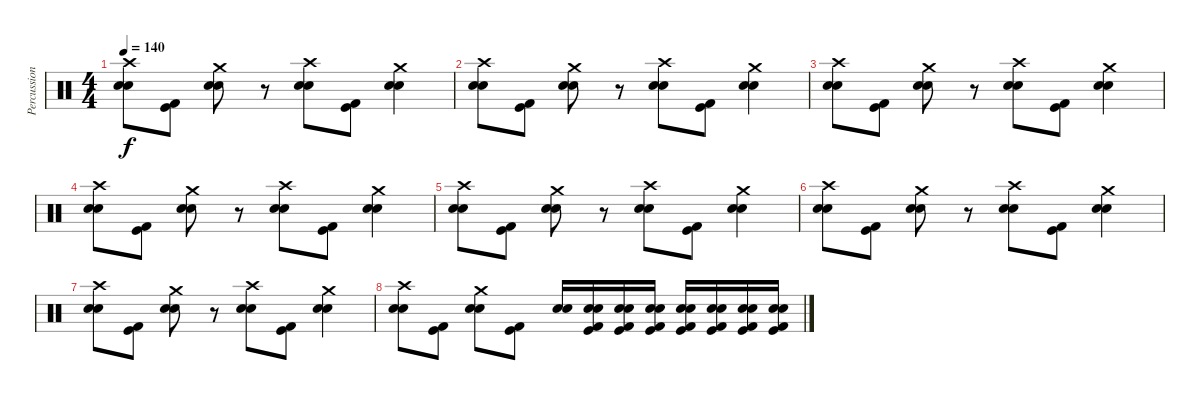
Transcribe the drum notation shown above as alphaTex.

\track ("Percussions" "Percussion") {instrument percussion}
\staff {score}
\articulation defaults
\ts (4 4)
\tempo 140
\clef neutral
\ks c
("Crash high (hit)" "Snare (hit) 2" "Electric Snare (hit)").8{dy f} ("Kick (hit)" "Kick (hit) 2").8 ("Crash medium (hit)" "Snare (hit) 2" "Electric Snare (hit)").8 r.8 ("Crash high (hit)" "Snare (hit) 2" "Electric Snare (hit)").8 ("Kick (hit)" "Kick (hit) 2").8 ("Crash medium (hit)" "Snare (hit) 2" "Electric Snare (hit)").4 |
("Crash high (hit)" "Snare (hit) 2" "Electric Snare (hit)").8 ("Kick (hit)" "Kick (hit) 2").8 ("Crash medium (hit)" "Snare (hit) 2" "Electric Snare (hit)").8 r.8 ("Crash high (hit)" "Snare (hit) 2" "Electric Snare (hit)").8 ("Kick (hit)" "Kick (hit) 2").8 ("Crash medium (hit)" "Snare (hit) 2" "Electric Snare (hit)").4 |
("Crash high (hit)" "Snare (hit) 2" "Electric Snare (hit)").8 ("Kick (hit)" "Kick (hit) 2").8 ("Crash medium (hit)" "Snare (hit) 2" "Electric Snare (hit)").8 r.8 ("Crash high (hit)" "Snare (hit) 2" "Electric Snare (hit)").8 ("Kick (hit)" "Kick (hit) 2").8 ("Crash medium (hit)" "Snare (hit) 2" "Electric Snare (hit)").4 |
("Crash high (hit)" "Snare (hit) 2" "Electric Snare (hit)").8 ("Kick (hit)" "Kick (hit) 2").8 ("Crash medium (hit)" "Snare (hit) 2" "Electric Snare (hit)").8 r.8 ("Crash high (hit)" "Snare (hit) 2" "Electric Snare (hit)").8 ("Kick (hit)" "Kick (hit) 2").8 ("Crash medium (hit)" "Snare (hit) 2" "Electric Snare (hit)").4 |
("Crash high (hit)" "Snare (hit) 2" "Electric Snare (hit)").8 ("Kick (hit)" "Kick (hit) 2").8 ("Crash medium (hit)" "Snare (hit) 2" "Electric Snare (hit)").8 r.8 ("Crash high (hit)" "Snare (hit) 2" "Electric Snare (hit)").8 ("Kick (hit)" "Kick (hit) 2").8 ("Crash medium (hit)" "Snare (hit) 2" "Electric Snare (hit)").4 |
("Crash high (hit)" "Snare (hit) 2" "Electric Snare (hit)").8 ("Kick (hit)" "Kick (hit) 2").8 ("Crash medium (hit)" "Snare (hit) 2" "Electric Snare (hit)").8 r.8 ("Crash high (hit)" "Snare (hit) 2" "Electric Snare (hit)").8 ("Kick (hit)" "Kick (hit) 2").8 ("Crash medium (hit)" "Snare (hit) 2" "Electric Snare (hit)").4 |
("Crash high (hit)" "Snare (hit) 2" "Electric Snare (hit)").8 ("Kick (hit)" "Kick (hit) 2").8 ("Crash medium (hit)" "Snare (hit) 2" "Electric Snare (hit)").8 r.8 ("Crash high (hit)" "Snare (hit) 2" "Electric Snare (hit)").8 ("Kick (hit)" "Kick (hit) 2").8 ("Crash medium (hit)" "Snare (hit) 2" "Electric Snare (hit)").4 |
("Crash high (hit)" "Snare (hit) 2" "Electric Snare (hit)").8 ("Kick (hit)" "Kick (hit) 2").8 ("Crash medium (hit)" "Snare (hit) 2" "Electric Snare (hit)").8 ("Kick (hit)" "Kick (hit) 2").8 ("Snare (hit) 2" "Electric Snare (hit)").16 ("Snare (hit) 2" "Electric Snare (hit)" "Kick (hit)" "Kick (hit) 2").16 ("Snare (hit) 2" "Electric Snare (hit)" "Kick (hit)" "Kick (hit) 2").16 ("Snare (hit) 2" "Electric Snare (hit)" "Kick (hit)" "Kick (hit) 2").16 ("Snare (hit) 2" "Electric Snare (hit)" "Kick (hit)" "Kick (hit) 2").16 ("Snare (hit) 2" "Electric Snare (hit)" "Kick (hit)" "Kick (hit) 2").16 ("Snare (hit) 2" "Electric Snare (hit)" "Kick (hit)" "Kick (hit) 2").16 ("Snare (hit) 2" "Electric Snare (hit)" "Kick (hit)" "Kick (hit) 2").16
